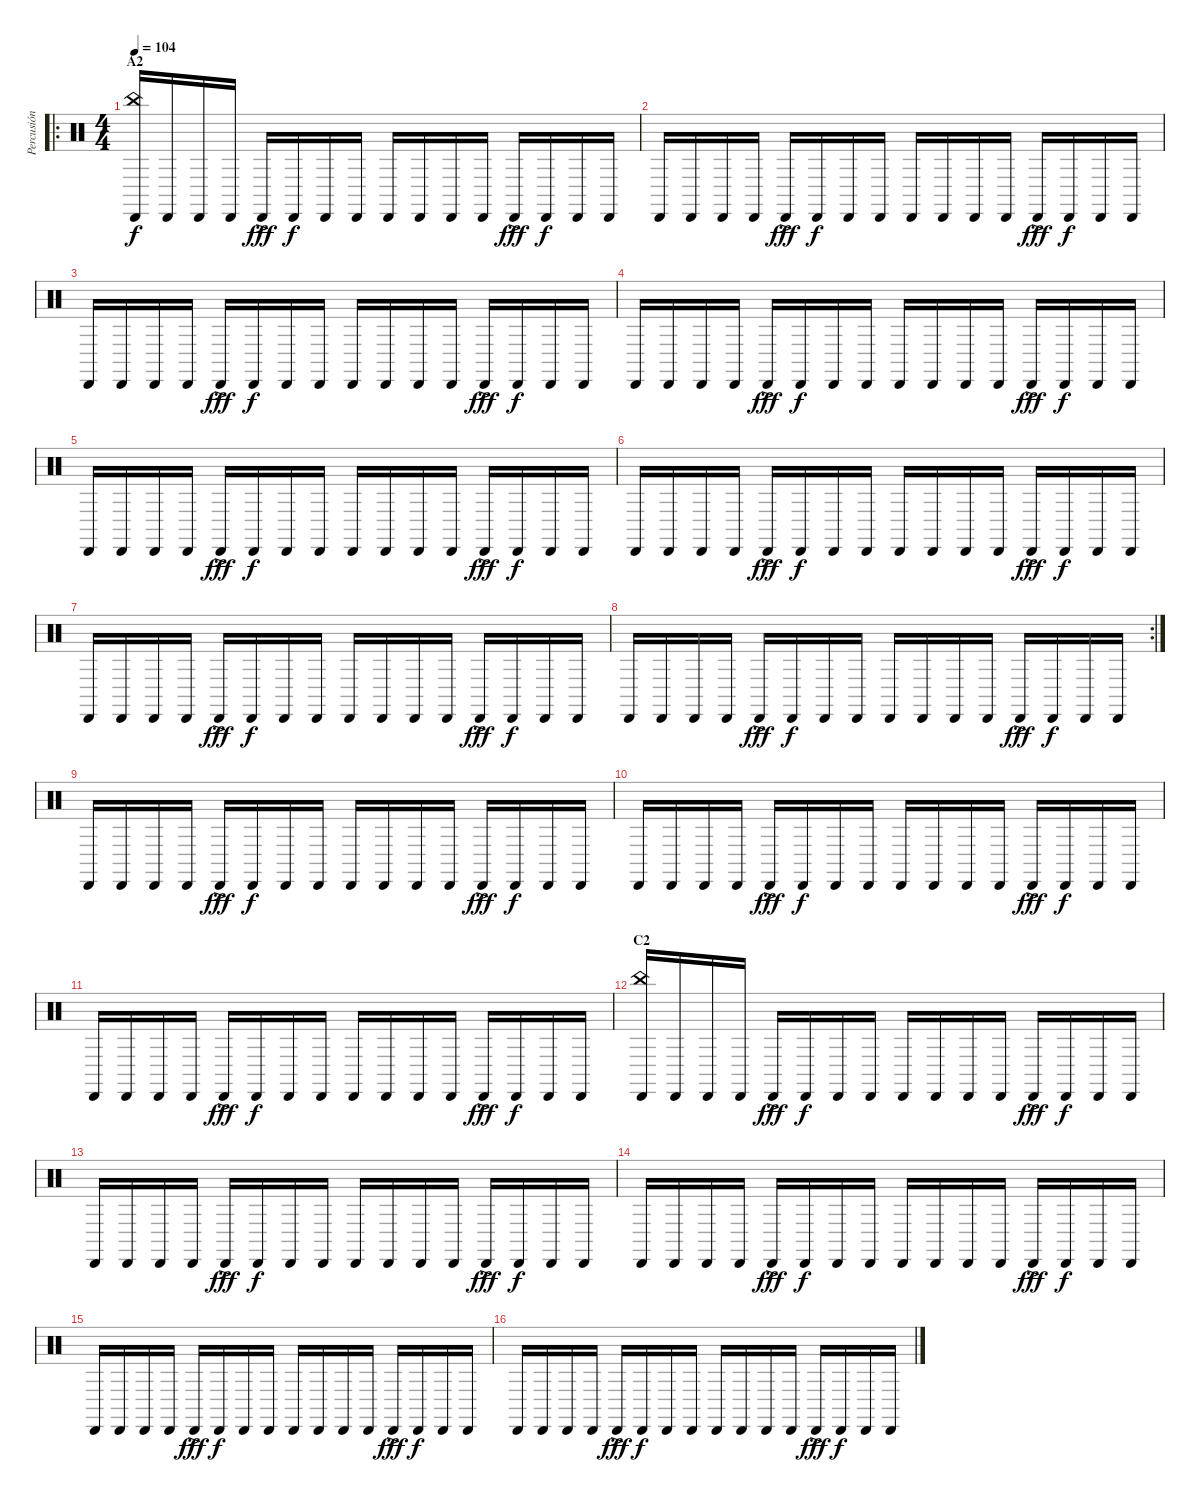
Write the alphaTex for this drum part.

\track ("Percusión" "Percusión") {instrument percussion}
\staff {score}
\articulation defaults
\ro
\ts (4 4)
\section ("" "A2")
\tempo 104
\clef neutral
\ks c
("Cabasa (hit)" "China (hit)").16{dy f} "Cabasa (hit)".16 "Cabasa (hit)".16 "Cabasa (hit)".16 "Cabasa (hit)"{ac}.16{dy fff} "Cabasa (hit)".16{dy f} "Cabasa (hit)".16 "Cabasa (hit)".16 "Cabasa (hit)".16 "Cabasa (hit)".16 "Cabasa (hit)".16 "Cabasa (hit)".16 "Cabasa (hit)"{ac}.16{dy fff} "Cabasa (hit)".16{dy f} "Cabasa (hit)".16 "Cabasa (hit)".16 |
"Cabasa (hit)".16 "Cabasa (hit)".16 "Cabasa (hit)".16 "Cabasa (hit)".16 "Cabasa (hit)"{ac}.16{dy fff} "Cabasa (hit)".16{dy f} "Cabasa (hit)".16 "Cabasa (hit)".16 "Cabasa (hit)".16 "Cabasa (hit)".16 "Cabasa (hit)".16 "Cabasa (hit)".16 "Cabasa (hit)"{ac}.16{dy fff} "Cabasa (hit)".16{dy f} "Cabasa (hit)".16 "Cabasa (hit)".16 |
"Cabasa (hit)".16 "Cabasa (hit)".16 "Cabasa (hit)".16 "Cabasa (hit)".16 "Cabasa (hit)"{ac}.16{dy fff} "Cabasa (hit)".16{dy f} "Cabasa (hit)".16 "Cabasa (hit)".16 "Cabasa (hit)".16 "Cabasa (hit)".16 "Cabasa (hit)".16 "Cabasa (hit)".16 "Cabasa (hit)"{ac}.16{dy fff} "Cabasa (hit)".16{dy f} "Cabasa (hit)".16 "Cabasa (hit)".16 |
"Cabasa (hit)".16 "Cabasa (hit)".16 "Cabasa (hit)".16 "Cabasa (hit)".16 "Cabasa (hit)"{ac}.16{dy fff} "Cabasa (hit)".16{dy f} "Cabasa (hit)".16 "Cabasa (hit)".16 "Cabasa (hit)".16 "Cabasa (hit)".16 "Cabasa (hit)".16 "Cabasa (hit)".16 "Cabasa (hit)"{ac}.16{dy fff} "Cabasa (hit)".16{dy f} "Cabasa (hit)".16 "Cabasa (hit)".16 |
"Cabasa (hit)".16 "Cabasa (hit)".16 "Cabasa (hit)".16 "Cabasa (hit)".16 "Cabasa (hit)"{ac}.16{dy fff} "Cabasa (hit)".16{dy f} "Cabasa (hit)".16 "Cabasa (hit)".16 "Cabasa (hit)".16 "Cabasa (hit)".16 "Cabasa (hit)".16 "Cabasa (hit)".16 "Cabasa (hit)"{ac}.16{dy fff} "Cabasa (hit)".16{dy f} "Cabasa (hit)".16 "Cabasa (hit)".16 |
"Cabasa (hit)".16 "Cabasa (hit)".16 "Cabasa (hit)".16 "Cabasa (hit)".16 "Cabasa (hit)"{ac}.16{dy fff} "Cabasa (hit)".16{dy f} "Cabasa (hit)".16 "Cabasa (hit)".16 "Cabasa (hit)".16 "Cabasa (hit)".16 "Cabasa (hit)".16 "Cabasa (hit)".16 "Cabasa (hit)"{ac}.16{dy fff} "Cabasa (hit)".16{dy f} "Cabasa (hit)".16 "Cabasa (hit)".16 |
"Cabasa (hit)".16 "Cabasa (hit)".16 "Cabasa (hit)".16 "Cabasa (hit)".16 "Cabasa (hit)"{ac}.16{dy fff} "Cabasa (hit)".16{dy f} "Cabasa (hit)".16 "Cabasa (hit)".16 "Cabasa (hit)".16 "Cabasa (hit)".16 "Cabasa (hit)".16 "Cabasa (hit)".16 "Cabasa (hit)"{ac}.16{dy fff} "Cabasa (hit)".16{dy f} "Cabasa (hit)".16 "Cabasa (hit)".16 |
\rc 2 "Cabasa (hit)".16 "Cabasa (hit)".16 "Cabasa (hit)".16 "Cabasa (hit)".16 "Cabasa (hit)"{ac}.16{dy fff} "Cabasa (hit)".16{dy f} "Cabasa (hit)".16 "Cabasa (hit)".16 "Cabasa (hit)".16 "Cabasa (hit)".16 "Cabasa (hit)".16 "Cabasa (hit)".16 "Cabasa (hit)"{ac}.16{dy fff} "Cabasa (hit)".16{dy f} "Cabasa (hit)".16 "Cabasa (hit)".16
|
"Cabasa (hit)".16 "Cabasa (hit)".16 "Cabasa (hit)".16 "Cabasa (hit)".16 "Cabasa (hit)"{ac}.16{dy fff} "Cabasa (hit)".16{dy f} "Cabasa (hit)".16 "Cabasa (hit)".16 "Cabasa (hit)".16 "Cabasa (hit)".16 "Cabasa (hit)".16 "Cabasa (hit)".16 "Cabasa (hit)"{ac}.16{dy fff} "Cabasa (hit)".16{dy f} "Cabasa (hit)".16 "Cabasa (hit)".16 |
"Cabasa (hit)".16 "Cabasa (hit)".16 "Cabasa (hit)".16 "Cabasa (hit)".16 "Cabasa (hit)"{ac}.16{dy fff} "Cabasa (hit)".16{dy f} "Cabasa (hit)".16 "Cabasa (hit)".16 "Cabasa (hit)".16 "Cabasa (hit)".16 "Cabasa (hit)".16 "Cabasa (hit)".16 "Cabasa (hit)"{ac}.16{dy fff} "Cabasa (hit)".16{dy f} "Cabasa (hit)".16 "Cabasa (hit)".16 |
"Cabasa (hit)".16 "Cabasa (hit)".16 "Cabasa (hit)".16 "Cabasa (hit)".16 "Cabasa (hit)"{ac}.16{dy fff} "Cabasa (hit)".16{dy f} "Cabasa (hit)".16 "Cabasa (hit)".16 "Cabasa (hit)".16 "Cabasa (hit)".16 "Cabasa (hit)".16 "Cabasa (hit)".16 "Cabasa (hit)"{ac}.16{dy fff} "Cabasa (hit)".16{dy f} "Cabasa (hit)".16 "Cabasa (hit)".16 |
\section ("" "C2")
("Cabasa (hit)" "China (hit)").16 "Cabasa (hit)".16 "Cabasa (hit)".16 "Cabasa (hit)".16 "Cabasa (hit)"{ac}.16{dy fff} "Cabasa (hit)".16{dy f} "Cabasa (hit)".16 "Cabasa (hit)".16 "Cabasa (hit)".16 "Cabasa (hit)".16 "Cabasa (hit)".16 "Cabasa (hit)".16 "Cabasa (hit)"{ac}.16{dy fff} "Cabasa (hit)".16{dy f} "Cabasa (hit)".16 "Cabasa (hit)".16 |
"Cabasa (hit)".16 "Cabasa (hit)".16 "Cabasa (hit)".16 "Cabasa (hit)".16 "Cabasa (hit)"{ac}.16{dy fff} "Cabasa (hit)".16{dy f} "Cabasa (hit)".16 "Cabasa (hit)".16 "Cabasa (hit)".16 "Cabasa (hit)".16 "Cabasa (hit)".16 "Cabasa (hit)".16 "Cabasa (hit)"{ac}.16{dy fff} "Cabasa (hit)".16{dy f} "Cabasa (hit)".16 "Cabasa (hit)".16 |
"Cabasa (hit)".16 "Cabasa (hit)".16 "Cabasa (hit)".16 "Cabasa (hit)".16 "Cabasa (hit)"{ac}.16{dy fff} "Cabasa (hit)".16{dy f} "Cabasa (hit)".16 "Cabasa (hit)".16 "Cabasa (hit)".16 "Cabasa (hit)".16 "Cabasa (hit)".16 "Cabasa (hit)".16 "Cabasa (hit)"{ac}.16{dy fff} "Cabasa (hit)".16{dy f} "Cabasa (hit)".16 "Cabasa (hit)".16 |
"Cabasa (hit)".16 "Cabasa (hit)".16 "Cabasa (hit)".16 "Cabasa (hit)".16 "Cabasa (hit)"{ac}.16{dy fff} "Cabasa (hit)".16{dy f} "Cabasa (hit)".16 "Cabasa (hit)".16 "Cabasa (hit)".16 "Cabasa (hit)".16 "Cabasa (hit)".16 "Cabasa (hit)".16 "Cabasa (hit)"{ac}.16{dy fff} "Cabasa (hit)".16{dy f} "Cabasa (hit)".16 "Cabasa (hit)".16 |
"Cabasa (hit)".16 "Cabasa (hit)".16 "Cabasa (hit)".16 "Cabasa (hit)".16 "Cabasa (hit)"{ac}.16{dy fff} "Cabasa (hit)".16{dy f} "Cabasa (hit)".16 "Cabasa (hit)".16 "Cabasa (hit)".16 "Cabasa (hit)".16 "Cabasa (hit)".16 "Cabasa (hit)".16 "Cabasa (hit)"{ac}.16{dy fff} "Cabasa (hit)".16{dy f} "Cabasa (hit)".16 "Cabasa (hit)".16
